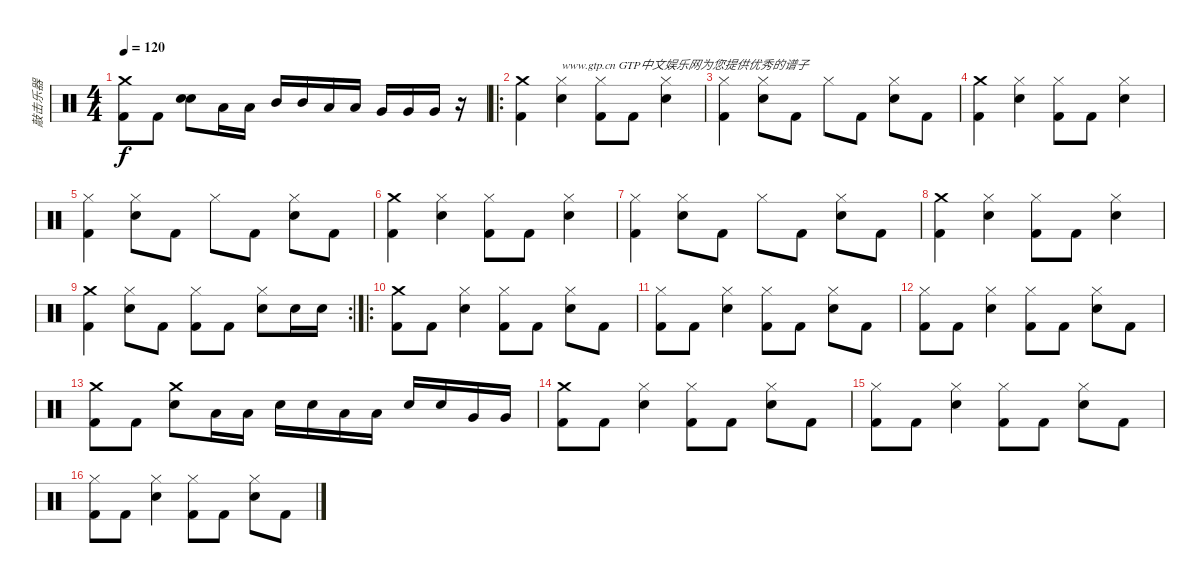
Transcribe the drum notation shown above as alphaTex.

\track ("敲击乐器" "敲击乐器") {instrument percussion}
\staff {score}
\articulation defaults
\ts (4 4)
\tempo 120
\clef neutral
\ks c
("Crash medium (hit)" "Kick (hit) 2").8{dy f} "Kick (hit) 2".8 ("Electric Snare (hit)" "Electric Snare (hit)").8 "Low Tom (hit)".16 "Low Tom (hit)".16 "Mid Tom (hit)".16 "Mid Tom (hit)".16 "Low Tom (hit)".16 "Low Tom (hit)".16 "Very Low Tom (hit)".16 "Very Low Tom (hit)".16 "Very Low Tom (hit)".16 r.16 |
\ro
("Crash medium (hit)" "Kick (hit) 2").4 ("Hi-Hat (closed)" "Electric Snare (hit)").4{txt "www.gtp.cn GTP中文娱乐网为您提供优秀的谱子"} ("Hi-Hat (closed)" "Kick (hit) 2").8 "Kick (hit) 2".8 ("Hi-Hat (closed)" "Electric Snare (hit)").4 |
("Hi-Hat (closed)" "Kick (hit) 2").4 ("Hi-Hat (closed)" "Electric Snare (hit)").8 "Kick (hit) 2".8 "Hi-Hat (closed)".8 "Kick (hit) 2".8 ("Hi-Hat (closed)" "Electric Snare (hit)").8 "Kick (hit) 2".8 |
("Crash medium (hit)" "Kick (hit) 2").4 ("Hi-Hat (closed)" "Electric Snare (hit)").4 ("Hi-Hat (closed)" "Kick (hit) 2").8 "Kick (hit) 2".8 ("Hi-Hat (closed)" "Electric Snare (hit)").4 |
("Hi-Hat (closed)" "Kick (hit) 2").4 ("Hi-Hat (closed)" "Electric Snare (hit)").8 "Kick (hit) 2".8 "Hi-Hat (closed)".8 "Kick (hit) 2".8 ("Hi-Hat (closed)" "Electric Snare (hit)").8 "Kick (hit) 2".8 |
("Crash medium (hit)" "Kick (hit) 2").4 ("Hi-Hat (closed)" "Electric Snare (hit)").4 ("Hi-Hat (closed)" "Kick (hit) 2").8 "Kick (hit) 2".8 ("Hi-Hat (closed)" "Electric Snare (hit)").4 |
("Hi-Hat (closed)" "Kick (hit) 2").4 ("Hi-Hat (closed)" "Electric Snare (hit)").8 "Kick (hit) 2".8 "Hi-Hat (closed)".8 "Kick (hit) 2".8 ("Hi-Hat (closed)" "Electric Snare (hit)").8 "Kick (hit) 2".8 |
("Crash medium (hit)" "Kick (hit) 2").4 ("Hi-Hat (closed)" "Electric Snare (hit)").4 ("Hi-Hat (closed)" "Kick (hit) 2").8 "Kick (hit) 2".8 ("Hi-Hat (closed)" "Electric Snare (hit)").4 |
\rc 2
("Crash medium (hit)" "Kick (hit) 2").4 ("Hi-Hat (closed)" "Electric Snare (hit)").8 "Kick (hit) 2".8 ("Hi-Hat (closed)" "Kick (hit) 2").8 "Kick (hit) 2".8 ("Hi-Hat (closed)" "Electric Snare (hit)").8 "Electric Snare (hit)".16 "Electric Snare (hit)".16 |
\ro
("Crash medium (hit)" "Kick (hit) 2").8 "Kick (hit) 2".8 ("Hi-Hat (closed)" "Electric Snare (hit)").4 ("Hi-Hat (closed)" "Kick (hit) 2").8 "Kick (hit) 2".8 ("Hi-Hat (closed)" "Electric Snare (hit)").8 "Kick (hit) 2".8 |
("Hi-Hat (closed)" "Kick (hit) 2").8 "Kick (hit) 2".8 ("Hi-Hat (closed)" "Electric Snare (hit)").4 ("Hi-Hat (closed)" "Kick (hit) 2").8 "Kick (hit) 2".8 ("Hi-Hat (closed)" "Electric Snare (hit)").8 "Kick (hit) 2".8 |
("Hi-Hat (closed)" "Kick (hit) 2").8 "Kick (hit) 2".8 ("Hi-Hat (closed)" "Electric Snare (hit)").4 ("Hi-Hat (closed)" "Kick (hit) 2").8 "Kick (hit) 2".8 ("Hi-Hat (closed)" "Electric Snare (hit)").8 "Kick (hit) 2".8 |
("Crash medium (hit)" "Kick (hit) 2").8 "Kick (hit) 2".8 ("Crash medium (hit)" "Electric Snare (hit)").8 "Low Tom (hit)".16 "Low Tom (hit)".16 "Electric Snare (hit)".16 "Electric Snare (hit)".16 "Low Tom (hit)".16 "Low Tom (hit)".16 "Electric Snare (hit)".16 "Electric Snare (hit)".16 "Very Low Tom (hit)".16 "Very Low Tom (hit)".16 |
("Crash medium (hit)" "Kick (hit) 2").8 "Kick (hit) 2".8 ("Hi-Hat (closed)" "Electric Snare (hit)").4 ("Hi-Hat (closed)" "Kick (hit) 2").8 "Kick (hit) 2".8 ("Hi-Hat (closed)" "Electric Snare (hit)").8 "Kick (hit) 2".8 |
("Hi-Hat (closed)" "Kick (hit) 2").8 "Kick (hit) 2".8 ("Hi-Hat (closed)" "Electric Snare (hit)").4 ("Hi-Hat (closed)" "Kick (hit) 2").8 "Kick (hit) 2".8 ("Hi-Hat (closed)" "Electric Snare (hit)").8 "Kick (hit) 2".8 |
("Hi-Hat (closed)" "Kick (hit) 2").8 "Kick (hit) 2".8 ("Hi-Hat (closed)" "Electric Snare (hit)").4 ("Hi-Hat (closed)" "Kick (hit) 2").8 "Kick (hit) 2".8 ("Hi-Hat (closed)" "Electric Snare (hit)").8 "Kick (hit) 2".8
